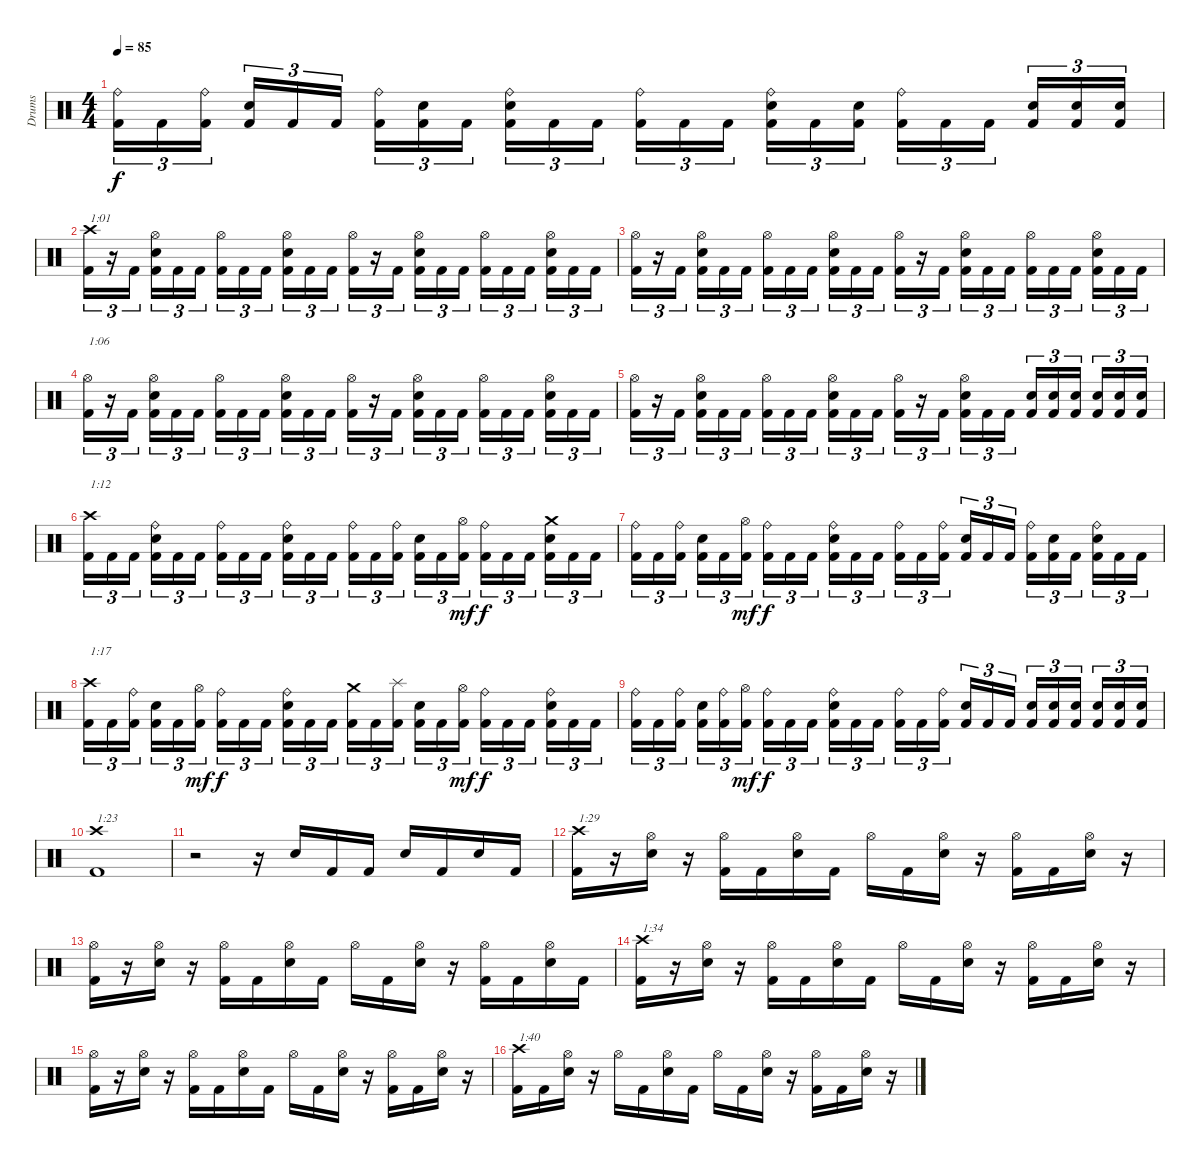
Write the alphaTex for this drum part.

\track ("Drums" "Drums") {instrument percussion}
\staff {score}
\articulation defaults
\ts (4 4)
\tempo 85
\clef neutral
\ks c
("Ride (bell)" "Kick (hit) 2").16{tu (3 2) dy f} "Kick (hit) 2".16{tu (3 2)} ("Ride (bell)" "Kick (hit) 2").16{tu (3 2)} ("Electric Snare (hit)" "Kick (hit) 2").16{tu (3 2)} "Kick (hit) 2".16{tu (3 2)} "Kick (hit) 2".16{tu (3 2)} ("Ride (bell)" "Kick (hit) 2").16{tu (3 2)} ("Electric Snare (hit)" "Kick (hit) 2").16{tu (3 2)} "Kick (hit) 2".16{tu (3 2)} ("Ride (bell)" "Electric Snare (hit)" "Kick (hit) 2").16{tu (3 2)} "Kick (hit) 2".16{tu (3 2)} "Kick (hit) 2".16{tu (3 2)} ("Ride (bell)" "Kick (hit) 2").16{tu (3 2)} "Kick (hit) 2".16{tu (3 2)} "Kick (hit) 2".16{tu (3 2)} ("Ride (bell)" "Electric Snare (hit)" "Kick (hit) 2").16{tu (3 2)} "Kick (hit) 2".16{tu (3 2)} ("Electric Snare (hit)" "Kick (hit) 2").16{tu (3 2)} ("Ride (bell)" "Kick (hit) 2").16{tu (3 2)} "Kick (hit) 2".16{tu (3 2)} "Kick (hit) 2".16{tu (3 2)} ("Electric Snare (hit)" "Kick (hit) 2").16{tu (3 2)} ("Electric Snare (hit)" "Kick (hit) 2").16{tu (3 2)} ("Electric Snare (hit)" "Kick (hit) 2").16{tu (3 2)} |
("Crash high (hit)" "Kick (hit) 2").16{tu (3 2) txt "1:01"} r.16{tu (3 2)} "Kick (hit) 2".16{tu (3 2)} ("Hi-Hat (open)" "Electric Snare (hit)" "Kick (hit) 2").16{tu (3 2)} "Kick (hit) 2".16{tu (3 2)} "Kick (hit) 2".16{tu (3 2)} ("Hi-Hat (open)" "Kick (hit) 2").16{tu (3 2)} "Kick (hit) 2".16{tu (3 2)} "Kick (hit) 2".16{tu (3 2)} ("Hi-Hat (open)" "Electric Snare (hit)" "Kick (hit) 2").16{tu (3 2)} "Kick (hit) 2".16{tu (3 2)} "Kick (hit) 2".16{tu (3 2)} ("Hi-Hat (open)" "Kick (hit) 2").16{tu (3 2)} r.16{tu (3 2)} "Kick (hit) 2".16{tu (3 2)} ("Hi-Hat (open)" "Electric Snare (hit)" "Kick (hit) 2").16{tu (3 2)} "Kick (hit) 2".16{tu (3 2)} "Kick (hit) 2".16{tu (3 2)} ("Hi-Hat (open)" "Kick (hit) 2").16{tu (3 2)} "Kick (hit) 2".16{tu (3 2)} "Kick (hit) 2".16{tu (3 2)} ("Hi-Hat (open)" "Electric Snare (hit)" "Kick (hit) 2").16{tu (3 2)} "Kick (hit) 2".16{tu (3 2)} "Kick (hit) 2".16{tu (3 2)} |
("Hi-Hat (open)" "Kick (hit) 2").16{tu (3 2)} r.16{tu (3 2)} "Kick (hit) 2".16{tu (3 2)} ("Hi-Hat (open)" "Electric Snare (hit)" "Kick (hit) 2").16{tu (3 2)} "Kick (hit) 2".16{tu (3 2)} "Kick (hit) 2".16{tu (3 2)} ("Hi-Hat (open)" "Kick (hit) 2").16{tu (3 2)} "Kick (hit) 2".16{tu (3 2)} "Kick (hit) 2".16{tu (3 2)} ("Hi-Hat (open)" "Electric Snare (hit)" "Kick (hit) 2").16{tu (3 2)} "Kick (hit) 2".16{tu (3 2)} "Kick (hit) 2".16{tu (3 2)} ("Hi-Hat (open)" "Kick (hit) 2").16{tu (3 2)} r.16{tu (3 2)} "Kick (hit) 2".16{tu (3 2)} ("Hi-Hat (open)" "Electric Snare (hit)" "Kick (hit) 2").16{tu (3 2)} "Kick (hit) 2".16{tu (3 2)} "Kick (hit) 2".16{tu (3 2)} ("Hi-Hat (open)" "Kick (hit) 2").16{tu (3 2)} "Kick (hit) 2".16{tu (3 2)} "Kick (hit) 2".16{tu (3 2)} ("Hi-Hat (open)" "Electric Snare (hit)" "Kick (hit) 2").16{tu (3 2)} "Kick (hit) 2".16{tu (3 2)} "Kick (hit) 2".16{tu (3 2)} |
("Hi-Hat (open)" "Kick (hit) 2").16{tu (3 2) txt "1:06"} r.16{tu (3 2)} "Kick (hit) 2".16{tu (3 2)} ("Hi-Hat (open)" "Electric Snare (hit)" "Kick (hit) 2").16{tu (3 2)} "Kick (hit) 2".16{tu (3 2)} "Kick (hit) 2".16{tu (3 2)} ("Hi-Hat (open)" "Kick (hit) 2").16{tu (3 2)} "Kick (hit) 2".16{tu (3 2)} "Kick (hit) 2".16{tu (3 2)} ("Hi-Hat (open)" "Electric Snare (hit)" "Kick (hit) 2").16{tu (3 2)} "Kick (hit) 2".16{tu (3 2)} "Kick (hit) 2".16{tu (3 2)} ("Hi-Hat (open)" "Kick (hit) 2").16{tu (3 2)} r.16{tu (3 2)} "Kick (hit) 2".16{tu (3 2)} ("Hi-Hat (open)" "Electric Snare (hit)" "Kick (hit) 2").16{tu (3 2)} "Kick (hit) 2".16{tu (3 2)} "Kick (hit) 2".16{tu (3 2)} ("Hi-Hat (open)" "Kick (hit) 2").16{tu (3 2)} "Kick (hit) 2".16{tu (3 2)} "Kick (hit) 2".16{tu (3 2)} ("Hi-Hat (open)" "Electric Snare (hit)" "Kick (hit) 2").16{tu (3 2)} "Kick (hit) 2".16{tu (3 2)} "Kick (hit) 2".16{tu (3 2)} |
("Hi-Hat (open)" "Kick (hit) 2").16{tu (3 2)} r.16{tu (3 2)} "Kick (hit) 2".16{tu (3 2)} ("Hi-Hat (open)" "Electric Snare (hit)" "Kick (hit) 2").16{tu (3 2)} "Kick (hit) 2".16{tu (3 2)} "Kick (hit) 2".16{tu (3 2)} ("Hi-Hat (open)" "Kick (hit) 2").16{tu (3 2)} "Kick (hit) 2".16{tu (3 2)} "Kick (hit) 2".16{tu (3 2)} ("Hi-Hat (open)" "Electric Snare (hit)" "Kick (hit) 2").16{tu (3 2)} "Kick (hit) 2".16{tu (3 2)} "Kick (hit) 2".16{tu (3 2)} ("Hi-Hat (open)" "Kick (hit) 2").16{tu (3 2)} r.16{tu (3 2)} "Kick (hit) 2".16{tu (3 2)} ("Hi-Hat (open)" "Electric Snare (hit)" "Kick (hit) 2").16{tu (3 2)} "Kick (hit) 2".16{tu (3 2)} "Kick (hit) 2".16{tu (3 2)} ("Electric Snare (hit)" "Kick (hit) 2").16{tu (3 2)} ("Electric Snare (hit)" "Kick (hit) 2").16{tu (3 2)} ("Electric Snare (hit)" "Kick (hit) 2").16{tu (3 2)} ("Electric Snare (hit)" "Kick (hit) 2").16{tu (3 2)} ("Electric Snare (hit)" "Kick (hit) 2").16{tu (3 2)} ("Electric Snare (hit)" "Kick (hit) 2").16{tu (3 2)} |
("Crash high (hit)" "Kick (hit) 2").16{tu (3 2) txt "1:12"} "Kick (hit) 2".16{tu (3 2)} "Kick (hit) 2".16{tu (3 2)} ("Ride (bell)" "Electric Snare (hit)" "Kick (hit) 2").16{tu (3 2)} "Kick (hit) 2".16{tu (3 2)} "Kick (hit) 2".16{tu (3 2)} ("Ride (bell)" "Kick (hit) 2").16{tu (3 2)} "Kick (hit) 2".16{tu (3 2)} "Kick (hit) 2".16{tu (3 2)} ("Ride (bell)" "Electric Snare (hit)" "Kick (hit) 2").16{tu (3 2)} "Kick (hit) 2".16{tu (3 2)} "Kick (hit) 2".16{tu (3 2)} ("Ride (bell)" "Kick (hit) 2").16{tu (3 2)} "Kick (hit) 2".16{tu (3 2)} ("Ride (bell)" "Kick (hit) 2").16{tu (3 2)} ("Electric Snare (hit)" "Kick (hit) 2").16{tu (3 2)} "Kick (hit) 2".16{tu (3 2)} ("Hi-Hat (open)" "Kick (hit) 2").16{tu (3 2) dy mf} ("Ride (bell)" "Kick (hit) 2").16{tu (3 2) dy f} "Kick (hit) 2".16{tu (3 2)} "Kick (hit) 2".16{tu (3 2)} ("Crash medium (hit)" "Electric Snare (hit)" "Kick (hit) 2").16{tu (3 2)} "Kick (hit) 2".16{tu (3 2)} "Kick (hit) 2".16{tu (3 2)} |
("Ride (bell)" "Kick (hit) 2").16{tu (3 2)} "Kick (hit) 2".16{tu (3 2)} ("Ride (bell)" "Kick (hit) 2").16{tu (3 2)} ("Electric Snare (hit)" "Kick (hit) 2").16{tu (3 2)} "Kick (hit) 2".16{tu (3 2)} ("Hi-Hat (open)" "Kick (hit) 2").16{tu (3 2) dy mf} ("Ride (bell)" "Kick (hit) 2").16{tu (3 2) dy f} "Kick (hit) 2".16{tu (3 2)} "Kick (hit) 2".16{tu (3 2)} ("Ride (bell)" "Electric Snare (hit)" "Kick (hit) 2").16{tu (3 2)} "Kick (hit) 2".16{tu (3 2)} "Kick (hit) 2".16{tu (3 2)} ("Ride (bell)" "Kick (hit) 2").16{tu (3 2)} "Kick (hit) 2".16{tu (3 2)} ("Ride (bell)" "Kick (hit) 2").16{tu (3 2)} ("Electric Snare (hit)" "Kick (hit) 2").16{tu (3 2)} "Kick (hit) 2".16{tu (3 2)} "Kick (hit) 2".16{tu (3 2)} ("Ride (bell)" "Kick (hit) 2").16{tu (3 2)} ("Electric Snare (hit)" "Kick (hit) 2").16{tu (3 2)} "Kick (hit) 2".16{tu (3 2)} ("Ride (bell)" "Electric Snare (hit)" "Kick (hit) 2").16{tu (3 2)} "Kick (hit) 2".16{tu (3 2)} "Kick (hit) 2".16{tu (3 2)} |
("Crash high (hit)" "Kick (hit) 2").16{tu (3 2) txt "1:17"} "Kick (hit) 2".16{tu (3 2)} ("Ride (bell)" "Kick (hit) 2").16{tu (3 2)} ("Electric Snare (hit)" "Kick (hit) 2").16{tu (3 2)} "Kick (hit) 2".16{tu (3 2)} ("Hi-Hat (open)" "Kick (hit) 2").16{tu (3 2) dy mf} ("Ride (bell)" "Kick (hit) 2").16{tu (3 2) dy f} "Kick (hit) 2".16{tu (3 2)} "Kick (hit) 2".16{tu (3 2)} ("Ride (bell)" "Electric Snare (hit)" "Kick (hit) 2").16{tu (3 2)} "Kick (hit) 2".16{tu (3 2)} "Kick (hit) 2".16{tu (3 2)} ("Crash medium (hit)" "Kick (hit) 2").16{tu (3 2)} "Kick (hit) 2".16{tu (3 2)} ("Splash (hit)" "Kick (hit) 2").16{tu (3 2)} ("Electric Snare (hit)" "Kick (hit) 2").16{tu (3 2)} "Kick (hit) 2".16{tu (3 2)} ("Hi-Hat (open)" "Kick (hit) 2").16{tu (3 2) dy mf} ("Ride (bell)" "Kick (hit) 2").16{tu (3 2) dy f} "Kick (hit) 2".16{tu (3 2)} "Kick (hit) 2".16{tu (3 2)} ("Ride (bell)" "Electric Snare (hit)" "Kick (hit) 2").16{tu (3 2)} "Kick (hit) 2".16{tu (3 2)} "Kick (hit) 2".16{tu (3 2)} |
("Ride (bell)" "Kick (hit) 2").16{tu (3 2)} "Kick (hit) 2".16{tu (3 2)} ("Ride (bell)" "Kick (hit) 2").16{tu (3 2)} ("Electric Snare (hit)" "Kick (hit) 2").16{tu (3 2)} ("Ride (bell)" "Kick (hit) 2").16{tu (3 2)} ("Hi-Hat (open)" "Kick (hit) 2").16{tu (3 2) dy mf} ("Ride (bell)" "Kick (hit) 2").16{tu (3 2) dy f} "Kick (hit) 2".16{tu (3 2)} "Kick (hit) 2".16{tu (3 2)} ("Ride (bell)" "Electric Snare (hit)" "Kick (hit) 2").16{tu (3 2)} "Kick (hit) 2".16{tu (3 2)} "Kick (hit) 2".16{tu (3 2)} ("Ride (bell)" "Kick (hit) 2").16{tu (3 2)} "Kick (hit) 2".16{tu (3 2)} ("Ride (bell)" "Kick (hit) 2").16{tu (3 2)} ("Electric Snare (hit)" "Kick (hit) 2").16{tu (3 2)} "Kick (hit) 2".16{tu (3 2)} "Kick (hit) 2".16{tu (3 2)} ("Electric Snare (hit)" "Kick (hit) 2").16{tu (3 2)} ("Electric Snare (hit)" "Kick (hit) 2").16{tu (3 2)} ("Electric Snare (hit)" "Kick (hit) 2").16{tu (3 2)} ("Electric Snare (hit)" "Kick (hit) 2").16{tu (3 2)} ("Electric Snare (hit)" "Kick (hit) 2").16{tu (3 2)} ("Electric Snare (hit)" "Kick (hit) 2").16{tu (3 2)} |
("Crash high (hit)" "Kick (hit) 2").1{txt "1:23"} |
r.2 r.16 "Electric Snare (hit)".16 "Kick (hit) 2".16 "Kick (hit) 2".16 "Electric Snare (hit)".16 "Kick (hit) 2".16 "Electric Snare (hit)".16 "Kick (hit) 2".16 |
("Crash high (hit)" "Kick (hit) 2").16{txt "1:29"} r.16 ("Hi-Hat (open)" "Electric Snare (hit)").16 r.16 ("Hi-Hat (open)" "Kick (hit) 2").16 "Kick (hit) 2".16 ("Hi-Hat (open)" "Electric Snare (hit)").16 "Kick (hit) 2".16 "Hi-Hat (open)".16 "Kick (hit) 2".16 ("Hi-Hat (open)" "Electric Snare (hit)").16 r.16 ("Hi-Hat (open)" "Kick (hit) 2").16 "Kick (hit) 2".16 ("Hi-Hat (open)" "Electric Snare (hit)").16 r.16 |
("Hi-Hat (open)" "Kick (hit) 2").16 r.16 ("Hi-Hat (open)" "Electric Snare (hit)").16 r.16 ("Hi-Hat (open)" "Kick (hit) 2").16 "Kick (hit) 2".16 ("Hi-Hat (open)" "Electric Snare (hit)").16 "Kick (hit) 2".16 "Hi-Hat (open)".16 "Kick (hit) 2".16 ("Hi-Hat (open)" "Electric Snare (hit)").16 r.16 ("Hi-Hat (open)" "Kick (hit) 2").16 "Kick (hit) 2".16 ("Hi-Hat (open)" "Electric Snare (hit)").16 "Kick (hit) 2".16 |
("Crash high (hit)" "Kick (hit) 2").16{txt "1:34"} r.16 ("Hi-Hat (open)" "Electric Snare (hit)").16 r.16 ("Hi-Hat (open)" "Kick (hit) 2").16 "Kick (hit) 2".16 ("Hi-Hat (open)" "Electric Snare (hit)").16 "Kick (hit) 2".16 "Hi-Hat (open)".16 "Kick (hit) 2".16 ("Hi-Hat (open)" "Electric Snare (hit)").16 r.16 ("Hi-Hat (open)" "Kick (hit) 2").16 "Kick (hit) 2".16 ("Hi-Hat (open)" "Electric Snare (hit)").16 r.16 |
("Hi-Hat (open)" "Kick (hit) 2").16 r.16 ("Hi-Hat (open)" "Electric Snare (hit)").16 r.16 ("Hi-Hat (open)" "Kick (hit) 2").16 "Kick (hit) 2".16 ("Hi-Hat (open)" "Electric Snare (hit)").16 "Kick (hit) 2".16 "Hi-Hat (open)".16 "Kick (hit) 2".16 ("Hi-Hat (open)" "Electric Snare (hit)").16 r.16 ("Hi-Hat (open)" "Kick (hit) 2").16 "Kick (hit) 2".16 ("Hi-Hat (open)" "Electric Snare (hit)").16 r.16 |
("Crash high (hit)" "Kick (hit) 2").16{txt "1:40"} "Kick (hit) 2".16 ("Hi-Hat (open)" "Electric Snare (hit)").16 r.16 "Hi-Hat (open)".16 "Kick (hit) 2".16 ("Hi-Hat (open)" "Electric Snare (hit)").16 "Kick (hit) 2".16 "Hi-Hat (open)".16 "Kick (hit) 2".16 ("Hi-Hat (open)" "Electric Snare (hit)").16 r.16 ("Hi-Hat (open)" "Kick (hit) 2").16 "Kick (hit) 2".16 ("Hi-Hat (open)" "Electric Snare (hit)").16 r.16
